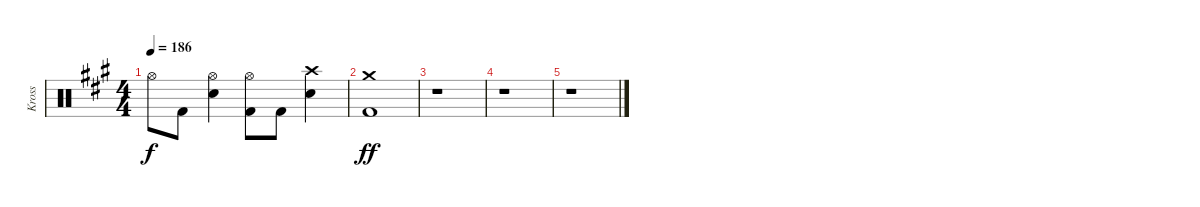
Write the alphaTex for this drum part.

\track ("Kross" "Kross") {instrument percussion}
\staff {score}
\articulation defaults
\ts (4 4)
\tempo 186
\clef neutral
\ks a "Hi-Hat (open)".8{dy f} "Kick (hit) 2".8
("Hi-Hat (open)" "Electric Snare (hit)").4 ("Hi-Hat (open)" "Kick (hit) 2").8 "Kick (hit) 2".8 ("Crash high (hit)" "Electric Snare (hit)").4 |
("Crash medium (hit)" "Kick (hit) 2").1{dy ff} |
r.1 |
r.1 |
r.1
